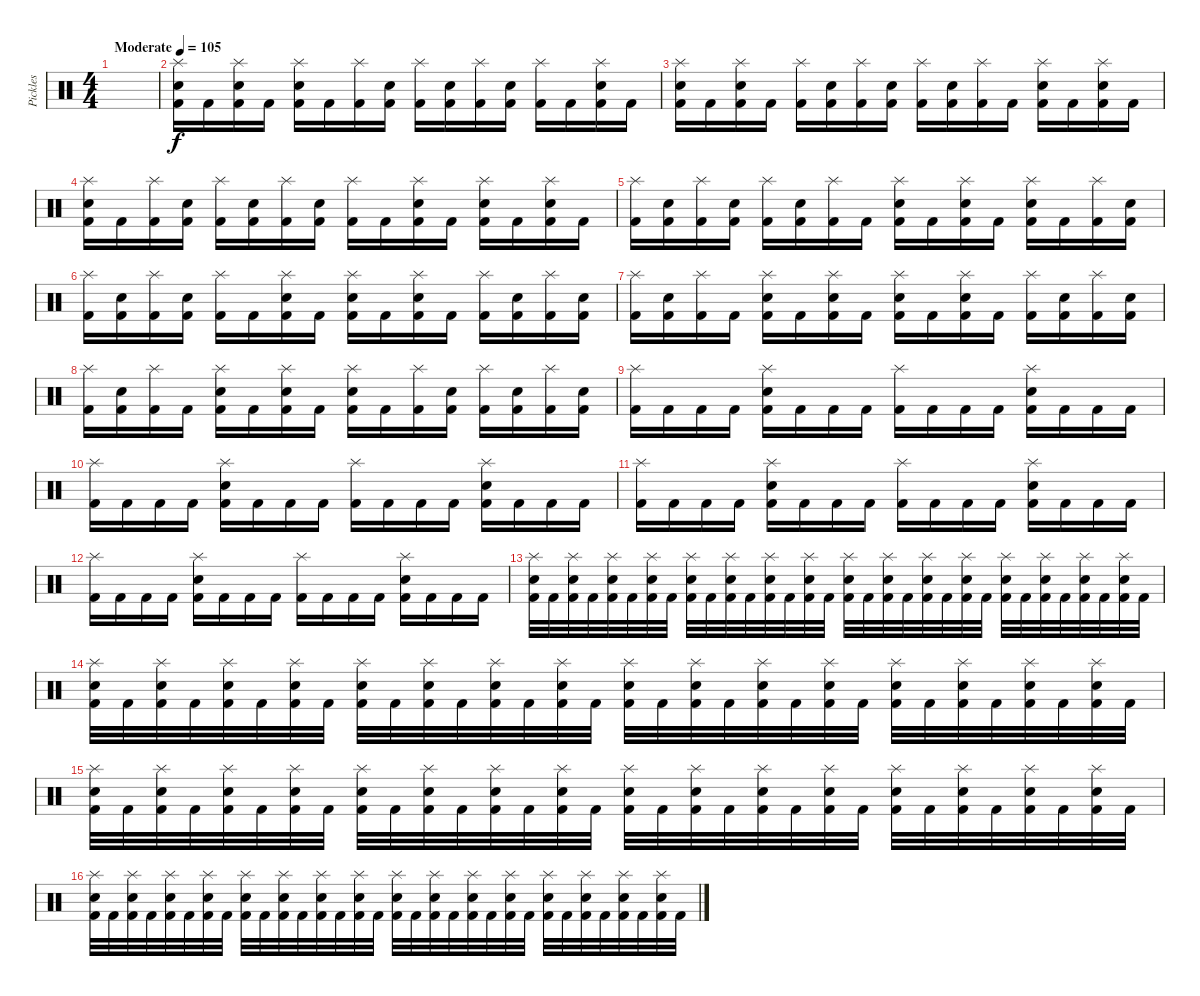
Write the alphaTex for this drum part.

\track ("Pickles" "Pickles") {instrument percussion}
\staff {score}
\articulation defaults
\ts (4 4)
\tempo (105 "Moderate")
\clef neutral
\ks c
|
("Splash (hit)" "Snare (hit) 2" "Kick (hit) 2").16 "Kick (hit) 2".16 ("Splash (hit)" "Snare (hit) 2" "Kick (hit) 2").16 "Kick (hit) 2".16 ("Splash (hit)" "Snare (hit) 2" "Kick (hit) 2").16 "Kick (hit) 2".16 ("Splash (hit)" "Kick (hit) 2").16 ("Snare (hit) 2" "Kick (hit) 2").16 ("Splash (hit)" "Kick (hit) 2").16 ("Snare (hit) 2" "Kick (hit) 2").16 ("Splash (hit)" "Kick (hit) 2").16 ("Snare (hit) 2" "Kick (hit) 2").16 ("Splash (hit)" "Kick (hit) 2").16 "Kick (hit) 2".16 ("Splash (hit)" "Snare (hit) 2" "Kick (hit) 2").16 "Kick (hit) 2".16 |
("Splash (hit)" "Snare (hit) 2" "Kick (hit) 2").16 "Kick (hit) 2".16 ("Splash (hit)" "Snare (hit) 2" "Kick (hit) 2").16 "Kick (hit) 2".16 ("Splash (hit)" "Kick (hit) 2").16 ("Snare (hit) 2" "Kick (hit) 2").16 ("Splash (hit)" "Kick (hit) 2").16 ("Snare (hit) 2" "Kick (hit) 2").16 ("Splash (hit)" "Kick (hit) 2").16 ("Snare (hit) 2" "Kick (hit) 2").16 ("Splash (hit)" "Kick (hit) 2").16 "Kick (hit) 2".16 ("Splash (hit)" "Snare (hit) 2" "Kick (hit) 2").16 "Kick (hit) 2".16 ("Splash (hit)" "Snare (hit) 2" "Kick (hit) 2").16 "Kick (hit) 2".16 |
("Splash (hit)" "Snare (hit) 2" "Kick (hit) 2").16 "Kick (hit) 2".16 ("Splash (hit)" "Kick (hit) 2").16 ("Snare (hit) 2" "Kick (hit) 2").16 ("Splash (hit)" "Kick (hit) 2").16 ("Snare (hit) 2" "Kick (hit) 2").16 ("Splash (hit)" "Kick (hit) 2").16 ("Snare (hit) 2" "Kick (hit) 2").16 ("Splash (hit)" "Kick (hit) 2").16 "Kick (hit) 2".16 ("Splash (hit)" "Snare (hit) 2" "Kick (hit) 2").16 "Kick (hit) 2".16 ("Splash (hit)" "Snare (hit) 2" "Kick (hit) 2").16 "Kick (hit) 2".16 ("Splash (hit)" "Snare (hit) 2" "Kick (hit) 2").16 "Kick (hit) 2".16 |
("Splash (hit)" "Kick (hit) 2").16 ("Snare (hit) 2" "Kick (hit) 2").16 ("Splash (hit)" "Kick (hit) 2").16 ("Snare (hit) 2" "Kick (hit) 2").16 ("Splash (hit)" "Kick (hit) 2").16 ("Snare (hit) 2" "Kick (hit) 2").16 ("Splash (hit)" "Kick (hit) 2").16 "Kick (hit) 2".16 ("Splash (hit)" "Snare (hit) 2" "Kick (hit) 2").16 "Kick (hit) 2".16 ("Splash (hit)" "Snare (hit) 2" "Kick (hit) 2").16 "Kick (hit) 2".16 ("Splash (hit)" "Snare (hit) 2" "Kick (hit) 2").16 "Kick (hit) 2".16 ("Splash (hit)" "Kick (hit) 2").16 ("Snare (hit) 2" "Kick (hit) 2").16 |
("Splash (hit)" "Kick (hit) 2").16 ("Snare (hit) 2" "Kick (hit) 2").16 ("Splash (hit)" "Kick (hit) 2").16 ("Snare (hit) 2" "Kick (hit) 2").16 ("Splash (hit)" "Kick (hit) 2").16 "Kick (hit) 2".16 ("Splash (hit)" "Snare (hit) 2" "Kick (hit) 2").16 "Kick (hit) 2".16 ("Splash (hit)" "Snare (hit) 2" "Kick (hit) 2").16 "Kick (hit) 2".16 ("Splash (hit)" "Snare (hit) 2" "Kick (hit) 2").16 "Kick (hit) 2".16 ("Splash (hit)" "Kick (hit) 2").16 ("Snare (hit) 2" "Kick (hit) 2").16 ("Splash (hit)" "Kick (hit) 2").16 ("Snare (hit) 2" "Kick (hit) 2").16 |
("Splash (hit)" "Kick (hit) 2").16 ("Snare (hit) 2" "Kick (hit) 2").16 ("Splash (hit)" "Kick (hit) 2").16 "Kick (hit) 2".16 ("Splash (hit)" "Snare (hit) 2" "Kick (hit) 2").16 "Kick (hit) 2".16 ("Splash (hit)" "Snare (hit) 2" "Kick (hit) 2").16 "Kick (hit) 2".16 ("Splash (hit)" "Snare (hit) 2" "Kick (hit) 2").16 "Kick (hit) 2".16 ("Splash (hit)" "Snare (hit) 2" "Kick (hit) 2").16 "Kick (hit) 2".16 ("Splash (hit)" "Kick (hit) 2").16 ("Snare (hit) 2" "Kick (hit) 2").16 ("Splash (hit)" "Kick (hit) 2").16 ("Snare (hit) 2" "Kick (hit) 2").16 |
("Splash (hit)" "Kick (hit) 2").16 ("Snare (hit) 2" "Kick (hit) 2").16 ("Splash (hit)" "Kick (hit) 2").16 "Kick (hit) 2".16 ("Splash (hit)" "Snare (hit) 2" "Kick (hit) 2").16 "Kick (hit) 2".16 ("Splash (hit)" "Snare (hit) 2" "Kick (hit) 2").16 "Kick (hit) 2".16 ("Splash (hit)" "Snare (hit) 2" "Kick (hit) 2").16 "Kick (hit) 2".16 ("Splash (hit)" "Kick (hit) 2").16 ("Snare (hit) 2" "Kick (hit) 2").16 ("Splash (hit)" "Kick (hit) 2").16 ("Snare (hit) 2" "Kick (hit) 2").16 ("Splash (hit)" "Kick (hit) 2").16 ("Snare (hit) 2" "Kick (hit) 2").16 |
("Splash (hit)" "Kick (hit) 2").16 "Kick (hit) 2".16 "Kick (hit) 2".16 "Kick (hit) 2".16 ("Splash (hit)" "Snare (hit) 2" "Kick (hit) 2").16 "Kick (hit) 2".16 "Kick (hit) 2".16 "Kick (hit) 2".16 ("Splash (hit)" "Kick (hit) 2").16 "Kick (hit) 2".16 "Kick (hit) 2".16 "Kick (hit) 2".16 ("Splash (hit)" "Snare (hit) 2" "Kick (hit) 2").16 "Kick (hit) 2".16 "Kick (hit) 2".16 "Kick (hit) 2".16 |
("Splash (hit)" "Kick (hit) 2").16 "Kick (hit) 2".16 "Kick (hit) 2".16 "Kick (hit) 2".16 ("Splash (hit)" "Snare (hit) 2" "Kick (hit) 2").16 "Kick (hit) 2".16 "Kick (hit) 2".16 "Kick (hit) 2".16 ("Splash (hit)" "Kick (hit) 2").16 "Kick (hit) 2".16 "Kick (hit) 2".16 "Kick (hit) 2".16 ("Splash (hit)" "Snare (hit) 2" "Kick (hit) 2").16 "Kick (hit) 2".16 "Kick (hit) 2".16 "Kick (hit) 2".16 |
("Splash (hit)" "Kick (hit) 2").16 "Kick (hit) 2".16 "Kick (hit) 2".16 "Kick (hit) 2".16 ("Splash (hit)" "Snare (hit) 2" "Kick (hit) 2").16 "Kick (hit) 2".16 "Kick (hit) 2".16 "Kick (hit) 2".16 ("Splash (hit)" "Kick (hit) 2").16 "Kick (hit) 2".16 "Kick (hit) 2".16 "Kick (hit) 2".16 ("Splash (hit)" "Snare (hit) 2" "Kick (hit) 2").16 "Kick (hit) 2".16 "Kick (hit) 2".16 "Kick (hit) 2".16 |
("Splash (hit)" "Kick (hit) 2").16 "Kick (hit) 2".16 "Kick (hit) 2".16 "Kick (hit) 2".16 ("Splash (hit)" "Snare (hit) 2" "Kick (hit) 2").16 "Kick (hit) 2".16 "Kick (hit) 2".16 "Kick (hit) 2".16 ("Splash (hit)" "Kick (hit) 2").16 "Kick (hit) 2".16 "Kick (hit) 2".16 "Kick (hit) 2".16 ("Splash (hit)" "Snare (hit) 2" "Kick (hit) 2").16 "Kick (hit) 2".16 "Kick (hit) 2".16 "Kick (hit) 2".16 |
("Splash (hit)" "Snare (hit) 2" "Kick (hit) 2").32 "Kick (hit) 2".32 ("Splash (hit)" "Snare (hit) 2" "Kick (hit) 2").32 "Kick (hit) 2".32 ("Splash (hit)" "Snare (hit) 2" "Kick (hit) 2").32 "Kick (hit) 2".32 ("Splash (hit)" "Snare (hit) 2" "Kick (hit) 2").32 "Kick (hit) 2".32 ("Splash (hit)" "Snare (hit) 2" "Kick (hit) 2").32 "Kick (hit) 2".32 ("Splash (hit)" "Snare (hit) 2" "Kick (hit) 2").32 "Kick (hit) 2".32 ("Splash (hit)" "Snare (hit) 2" "Kick (hit) 2").32 "Kick (hit) 2".32 ("Splash (hit)" "Snare (hit) 2" "Kick (hit) 2").32 "Kick (hit) 2".32 ("Splash (hit)" "Snare (hit) 2" "Kick (hit) 2").32 "Kick (hit) 2".32 ("Splash (hit)" "Snare (hit) 2" "Kick (hit) 2").32 "Kick (hit) 2".32 ("Splash (hit)" "Snare (hit) 2" "Kick (hit) 2").32 "Kick (hit) 2".32 ("Splash (hit)" "Snare (hit) 2" "Kick (hit) 2").32 "Kick (hit) 2".32 ("Splash (hit)" "Snare (hit) 2" "Kick (hit) 2").32 "Kick (hit) 2".32 ("Splash (hit)" "Snare (hit) 2" "Kick (hit) 2").32 "Kick (hit) 2".32 ("Splash (hit)" "Snare (hit) 2" "Kick (hit) 2").32 "Kick (hit) 2".32 ("Splash (hit)" "Snare (hit) 2" "Kick (hit) 2").32 "Kick (hit) 2".32 |
("Splash (hit)" "Snare (hit) 2" "Kick (hit) 2").32 "Kick (hit) 2".32 ("Splash (hit)" "Snare (hit) 2" "Kick (hit) 2").32 "Kick (hit) 2".32 ("Splash (hit)" "Snare (hit) 2" "Kick (hit) 2").32 "Kick (hit) 2".32 ("Splash (hit)" "Snare (hit) 2" "Kick (hit) 2").32 "Kick (hit) 2".32 ("Splash (hit)" "Snare (hit) 2" "Kick (hit) 2").32 "Kick (hit) 2".32 ("Splash (hit)" "Snare (hit) 2" "Kick (hit) 2").32 "Kick (hit) 2".32 ("Splash (hit)" "Snare (hit) 2" "Kick (hit) 2").32 "Kick (hit) 2".32 ("Splash (hit)" "Snare (hit) 2" "Kick (hit) 2").32 "Kick (hit) 2".32 ("Splash (hit)" "Snare (hit) 2" "Kick (hit) 2").32 "Kick (hit) 2".32 ("Splash (hit)" "Snare (hit) 2" "Kick (hit) 2").32 "Kick (hit) 2".32 ("Splash (hit)" "Snare (hit) 2" "Kick (hit) 2").32 "Kick (hit) 2".32 ("Splash (hit)" "Snare (hit) 2" "Kick (hit) 2").32 "Kick (hit) 2".32 ("Splash (hit)" "Snare (hit) 2" "Kick (hit) 2").32 "Kick (hit) 2".32 ("Splash (hit)" "Snare (hit) 2" "Kick (hit) 2").32 "Kick (hit) 2".32 ("Splash (hit)" "Snare (hit) 2" "Kick (hit) 2").32 "Kick (hit) 2".32 ("Splash (hit)" "Snare (hit) 2" "Kick (hit) 2").32 "Kick (hit) 2".32 |
("Splash (hit)" "Snare (hit) 2" "Kick (hit) 2").32 "Kick (hit) 2".32 ("Splash (hit)" "Snare (hit) 2" "Kick (hit) 2").32 "Kick (hit) 2".32 ("Splash (hit)" "Snare (hit) 2" "Kick (hit) 2").32 "Kick (hit) 2".32 ("Splash (hit)" "Snare (hit) 2" "Kick (hit) 2").32 "Kick (hit) 2".32 ("Splash (hit)" "Snare (hit) 2" "Kick (hit) 2").32 "Kick (hit) 2".32 ("Splash (hit)" "Snare (hit) 2" "Kick (hit) 2").32 "Kick (hit) 2".32 ("Splash (hit)" "Snare (hit) 2" "Kick (hit) 2").32 "Kick (hit) 2".32 ("Splash (hit)" "Snare (hit) 2" "Kick (hit) 2").32 "Kick (hit) 2".32 ("Splash (hit)" "Snare (hit) 2" "Kick (hit) 2").32 "Kick (hit) 2".32 ("Splash (hit)" "Snare (hit) 2" "Kick (hit) 2").32 "Kick (hit) 2".32 ("Splash (hit)" "Snare (hit) 2" "Kick (hit) 2").32 "Kick (hit) 2".32 ("Splash (hit)" "Snare (hit) 2" "Kick (hit) 2").32 "Kick (hit) 2".32 ("Splash (hit)" "Snare (hit) 2" "Kick (hit) 2").32 "Kick (hit) 2".32 ("Splash (hit)" "Snare (hit) 2" "Kick (hit) 2").32 "Kick (hit) 2".32 ("Splash (hit)" "Snare (hit) 2" "Kick (hit) 2").32 "Kick (hit) 2".32 ("Splash (hit)" "Snare (hit) 2" "Kick (hit) 2").32 "Kick (hit) 2".32 |
("Splash (hit)" "Snare (hit) 2" "Kick (hit) 2").32 "Kick (hit) 2".32 ("Splash (hit)" "Snare (hit) 2" "Kick (hit) 2").32 "Kick (hit) 2".32 ("Splash (hit)" "Snare (hit) 2" "Kick (hit) 2").32 "Kick (hit) 2".32 ("Splash (hit)" "Snare (hit) 2" "Kick (hit) 2").32 "Kick (hit) 2".32 ("Splash (hit)" "Snare (hit) 2" "Kick (hit) 2").32 "Kick (hit) 2".32 ("Splash (hit)" "Snare (hit) 2" "Kick (hit) 2").32 "Kick (hit) 2".32 ("Splash (hit)" "Snare (hit) 2" "Kick (hit) 2").32 "Kick (hit) 2".32 ("Splash (hit)" "Snare (hit) 2" "Kick (hit) 2").32 "Kick (hit) 2".32 ("Splash (hit)" "Snare (hit) 2" "Kick (hit) 2").32 "Kick (hit) 2".32 ("Splash (hit)" "Snare (hit) 2" "Kick (hit) 2").32 "Kick (hit) 2".32 ("Splash (hit)" "Snare (hit) 2" "Kick (hit) 2").32 "Kick (hit) 2".32 ("Splash (hit)" "Snare (hit) 2" "Kick (hit) 2").32 "Kick (hit) 2".32 ("Splash (hit)" "Snare (hit) 2" "Kick (hit) 2").32 "Kick (hit) 2".32 ("Splash (hit)" "Snare (hit) 2" "Kick (hit) 2").32 "Kick (hit) 2".32 ("Splash (hit)" "Snare (hit) 2" "Kick (hit) 2").32 "Kick (hit) 2".32 ("Splash (hit)" "Snare (hit) 2" "Kick (hit) 2").32 "Kick (hit) 2".32
